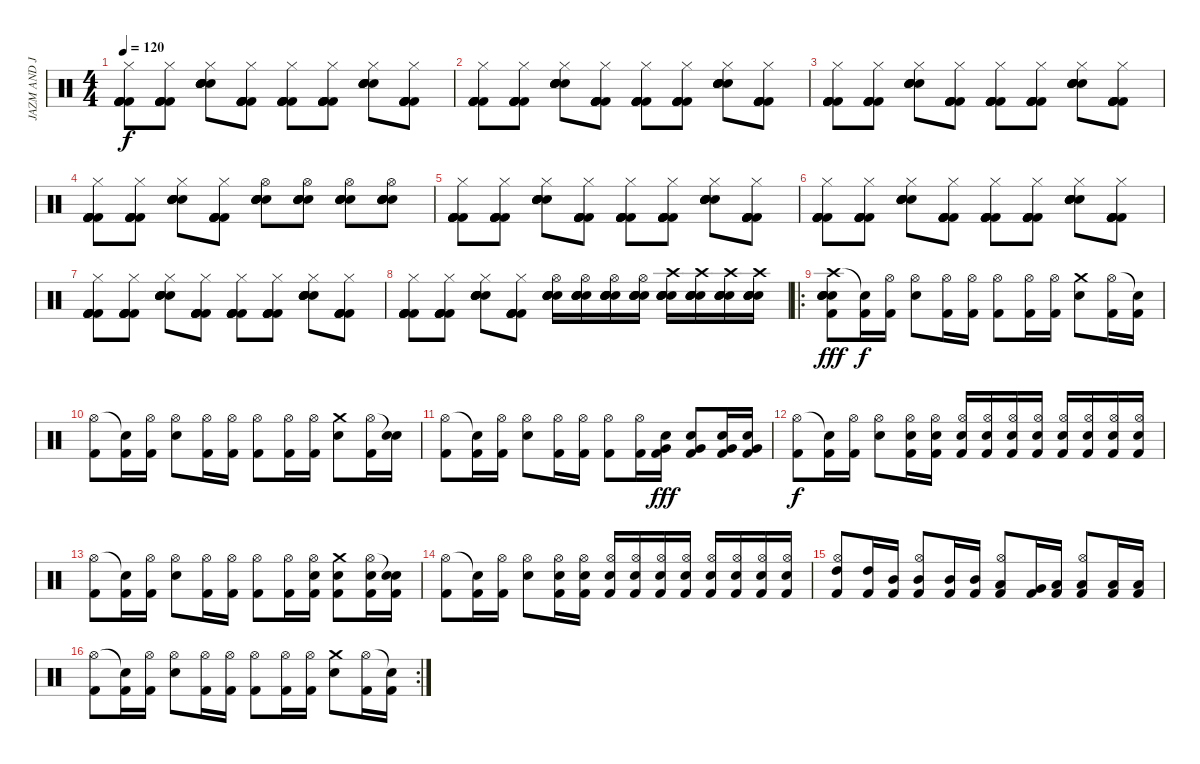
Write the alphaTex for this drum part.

\track ("JAZM AND JOKER" "JAZM AND J") {instrument percussion}
\staff {score}
\articulation defaults
\ts (4 4)
\tempo 120
\clef neutral
\ks c
("Hi-Hat (closed)" "Kick (hit) 2" "Kick (hit) 2" "Kick (hit) 2" "Kick (hit) 2" "Kick (hit) 2").8{dy f} ("Hi-Hat (closed)" "Kick (hit) 2" "Kick (hit) 2" "Kick (hit) 2" "Kick (hit) 2" "Kick (hit) 2").8 ("Hi-Hat (closed)" "Snare (hit) 2" "Snare (hit) 2" "Snare (hit) 2" "Snare (hit) 2" "Snare (hit) 2").8 ("Hi-Hat (closed)" "Kick (hit) 2" "Kick (hit) 2" "Kick (hit) 2" "Kick (hit) 2" "Kick (hit) 2").8 ("Hi-Hat (closed)" "Kick (hit) 2" "Kick (hit) 2" "Kick (hit) 2" "Kick (hit) 2" "Kick (hit) 2").8 ("Hi-Hat (closed)" "Kick (hit) 2" "Kick (hit) 2" "Kick (hit) 2" "Kick (hit) 2" "Kick (hit) 2").8 ("Hi-Hat (closed)" "Snare (hit) 2" "Snare (hit) 2" "Snare (hit) 2" "Snare (hit) 2" "Snare (hit) 2").8 ("Hi-Hat (closed)" "Kick (hit) 2" "Kick (hit) 2" "Kick (hit) 2" "Kick (hit) 2" "Kick (hit) 2").8 |
("Hi-Hat (closed)" "Kick (hit) 2" "Kick (hit) 2" "Kick (hit) 2" "Kick (hit) 2" "Kick (hit) 2").8 ("Hi-Hat (closed)" "Kick (hit) 2" "Kick (hit) 2" "Kick (hit) 2" "Kick (hit) 2" "Kick (hit) 2").8 ("Hi-Hat (closed)" "Snare (hit) 2" "Snare (hit) 2" "Snare (hit) 2" "Snare (hit) 2" "Snare (hit) 2").8 ("Hi-Hat (closed)" "Kick (hit) 2" "Kick (hit) 2" "Kick (hit) 2" "Kick (hit) 2" "Kick (hit) 2").8 ("Hi-Hat (closed)" "Kick (hit) 2" "Kick (hit) 2" "Kick (hit) 2" "Kick (hit) 2" "Kick (hit) 2").8 ("Hi-Hat (closed)" "Kick (hit) 2" "Kick (hit) 2" "Kick (hit) 2" "Kick (hit) 2" "Kick (hit) 2").8 ("Hi-Hat (closed)" "Snare (hit) 2" "Snare (hit) 2" "Snare (hit) 2" "Snare (hit) 2" "Snare (hit) 2").8 ("Hi-Hat (closed)" "Kick (hit) 2" "Kick (hit) 2" "Kick (hit) 2" "Kick (hit) 2" "Kick (hit) 2").8 |
("Hi-Hat (closed)" "Kick (hit) 2" "Kick (hit) 2" "Kick (hit) 2" "Kick (hit) 2" "Kick (hit) 2").8 ("Hi-Hat (closed)" "Kick (hit) 2" "Kick (hit) 2" "Kick (hit) 2" "Kick (hit) 2" "Kick (hit) 2").8 ("Hi-Hat (closed)" "Snare (hit) 2" "Snare (hit) 2" "Snare (hit) 2" "Snare (hit) 2" "Snare (hit) 2").8 ("Hi-Hat (closed)" "Kick (hit) 2" "Kick (hit) 2" "Kick (hit) 2" "Kick (hit) 2" "Kick (hit) 2").8 ("Hi-Hat (closed)" "Kick (hit) 2" "Kick (hit) 2" "Kick (hit) 2" "Kick (hit) 2" "Kick (hit) 2").8 ("Hi-Hat (closed)" "Kick (hit) 2" "Kick (hit) 2" "Kick (hit) 2" "Kick (hit) 2" "Kick (hit) 2").8 ("Hi-Hat (closed)" "Snare (hit) 2" "Snare (hit) 2" "Snare (hit) 2" "Snare (hit) 2" "Snare (hit) 2").8 ("Hi-Hat (closed)" "Kick (hit) 2" "Kick (hit) 2" "Kick (hit) 2" "Kick (hit) 2" "Kick (hit) 2").8 |
("Hi-Hat (closed)" "Kick (hit) 2" "Kick (hit) 2" "Kick (hit) 2" "Kick (hit) 2" "Kick (hit) 2").8 ("Hi-Hat (closed)" "Kick (hit) 2" "Kick (hit) 2" "Kick (hit) 2" "Kick (hit) 2" "Kick (hit) 2").8 ("Hi-Hat (closed)" "Snare (hit) 2" "Snare (hit) 2" "Snare (hit) 2" "Snare (hit) 2" "Snare (hit) 2").8 ("Hi-Hat (closed)" "Kick (hit) 2" "Kick (hit) 2" "Kick (hit) 2" "Kick (hit) 2" "Kick (hit) 2").8 ("Hi-Hat (open)" "Snare (hit) 2" "Snare (hit) 2" "Snare (hit) 2" "Snare (hit) 2" "Snare (hit) 2").8 ("Hi-Hat (open)" "Snare (hit) 2" "Snare (hit) 2" "Snare (hit) 2" "Snare (hit) 2" "Snare (hit) 2").8 ("Hi-Hat (open)" "Snare (hit) 2" "Snare (hit) 2" "Snare (hit) 2" "Snare (hit) 2" "Snare (hit) 2").8 ("Hi-Hat (open)" "Snare (hit) 2" "Snare (hit) 2" "Snare (hit) 2" "Snare (hit) 2" "Snare (hit) 2").8 |
("Hi-Hat (closed)" "Kick (hit) 2" "Kick (hit) 2" "Kick (hit) 2" "Kick (hit) 2" "Kick (hit) 2").8 ("Hi-Hat (closed)" "Kick (hit) 2" "Kick (hit) 2" "Kick (hit) 2" "Kick (hit) 2" "Kick (hit) 2").8 ("Hi-Hat (closed)" "Snare (hit) 2" "Snare (hit) 2" "Snare (hit) 2" "Snare (hit) 2" "Snare (hit) 2").8 ("Hi-Hat (closed)" "Kick (hit) 2" "Kick (hit) 2" "Kick (hit) 2" "Kick (hit) 2" "Kick (hit) 2").8 ("Hi-Hat (closed)" "Kick (hit) 2" "Kick (hit) 2" "Kick (hit) 2" "Kick (hit) 2" "Kick (hit) 2").8 ("Hi-Hat (closed)" "Kick (hit) 2" "Kick (hit) 2" "Kick (hit) 2" "Kick (hit) 2" "Kick (hit) 2").8 ("Hi-Hat (closed)" "Snare (hit) 2" "Snare (hit) 2" "Snare (hit) 2" "Snare (hit) 2" "Snare (hit) 2").8 ("Hi-Hat (closed)" "Kick (hit) 2" "Kick (hit) 2" "Kick (hit) 2" "Kick (hit) 2" "Kick (hit) 2").8 |
("Hi-Hat (closed)" "Kick (hit) 2" "Kick (hit) 2" "Kick (hit) 2" "Kick (hit) 2" "Kick (hit) 2").8 ("Hi-Hat (closed)" "Kick (hit) 2" "Kick (hit) 2" "Kick (hit) 2" "Kick (hit) 2" "Kick (hit) 2").8 ("Hi-Hat (closed)" "Snare (hit) 2" "Snare (hit) 2" "Snare (hit) 2" "Snare (hit) 2" "Snare (hit) 2").8 ("Hi-Hat (closed)" "Kick (hit) 2" "Kick (hit) 2" "Kick (hit) 2" "Kick (hit) 2" "Kick (hit) 2").8 ("Hi-Hat (closed)" "Kick (hit) 2" "Kick (hit) 2" "Kick (hit) 2" "Kick (hit) 2" "Kick (hit) 2").8 ("Hi-Hat (closed)" "Kick (hit) 2" "Kick (hit) 2" "Kick (hit) 2" "Kick (hit) 2" "Kick (hit) 2").8 ("Hi-Hat (closed)" "Snare (hit) 2" "Snare (hit) 2" "Snare (hit) 2" "Snare (hit) 2" "Snare (hit) 2").8 ("Hi-Hat (closed)" "Kick (hit) 2" "Kick (hit) 2" "Kick (hit) 2" "Kick (hit) 2" "Kick (hit) 2").8 |
("Hi-Hat (closed)" "Kick (hit) 2" "Kick (hit) 2" "Kick (hit) 2" "Kick (hit) 2" "Kick (hit) 2").8 ("Hi-Hat (closed)" "Kick (hit) 2" "Kick (hit) 2" "Kick (hit) 2" "Kick (hit) 2" "Kick (hit) 2").8 ("Hi-Hat (closed)" "Snare (hit) 2" "Snare (hit) 2" "Snare (hit) 2" "Snare (hit) 2" "Snare (hit) 2").8 ("Hi-Hat (closed)" "Kick (hit) 2" "Kick (hit) 2" "Kick (hit) 2" "Kick (hit) 2" "Kick (hit) 2").8 ("Hi-Hat (closed)" "Kick (hit) 2" "Kick (hit) 2" "Kick (hit) 2" "Kick (hit) 2" "Kick (hit) 2").8 ("Hi-Hat (closed)" "Kick (hit) 2" "Kick (hit) 2" "Kick (hit) 2" "Kick (hit) 2" "Kick (hit) 2").8 ("Hi-Hat (closed)" "Snare (hit) 2" "Snare (hit) 2" "Snare (hit) 2" "Snare (hit) 2" "Snare (hit) 2").8 ("Hi-Hat (closed)" "Kick (hit) 2" "Kick (hit) 2" "Kick (hit) 2" "Kick (hit) 2" "Kick (hit) 2").8 |
("Hi-Hat (closed)" "Kick (hit) 2" "Kick (hit) 2" "Kick (hit) 2" "Kick (hit) 2" "Kick (hit) 2").8 ("Hi-Hat (closed)" "Kick (hit) 2" "Kick (hit) 2" "Kick (hit) 2" "Kick (hit) 2" "Kick (hit) 2").8 ("Hi-Hat (closed)" "Snare (hit) 2" "Snare (hit) 2" "Snare (hit) 2" "Snare (hit) 2" "Snare (hit) 2").8 ("Hi-Hat (closed)" "Kick (hit) 2" "Kick (hit) 2" "Kick (hit) 2" "Kick (hit) 2" "Kick (hit) 2").8 ("Hi-Hat (open)" "Snare (hit) 2" "Snare (hit) 2" "Snare (hit) 2" "Snare (hit) 2" "Snare (hit) 2").16 ("Hi-Hat (open)" "Snare (hit) 2" "Snare (hit) 2" "Snare (hit) 2" "Snare (hit) 2" "Snare (hit) 2").16 ("Hi-Hat (open)" "Snare (hit) 2" "Snare (hit) 2" "Snare (hit) 2" "Snare (hit) 2" "Snare (hit) 2").16 ("Hi-Hat (open)" "Snare (hit) 2" "Snare (hit) 2" "Snare (hit) 2" "Snare (hit) 2" "Snare (hit) 2").16 ("Crash high (hit)" "Snare (hit) 2" "Snare (hit) 2" "Snare (hit) 2" "Snare (hit) 2" "Snare (hit) 2").16 ("Crash high (hit)" "Snare (hit) 2" "Snare (hit) 2" "Snare (hit) 2" "Snare (hit) 2" "Snare (hit) 2").16 ("Crash high (hit)" "Snare (hit) 2" "Snare (hit) 2" "Snare (hit) 2" "Snare (hit) 2" "Snare (hit) 2").16 ("Crash high (hit)" "Snare (hit) 2" "Snare (hit) 2" "Snare (hit) 2" "Snare (hit) 2" "Snare (hit) 2").16 |
\ro
("Crash high (hit)" "Electric Snare (hit)" "Electric Snare (hit)" "Electric Snare (hit)" "Electric Snare (hit)" "Kick (hit) 2").8{dy fff} ("Snare (hit)"{t} "Kick (hit) 2").16{dy f} ("Hi-Hat (open)" "Kick (hit) 2").16 ("Hi-Hat (open)" "Electric Snare (hit)").8 ("Hi-Hat (open)" "Kick (hit) 2").16 ("Hi-Hat (open)" "Kick (hit) 2").16 ("Hi-Hat (open)" "Kick (hit) 2").8 ("Hi-Hat (open)" "Kick (hit) 2").16 ("Hi-Hat (open)" "Kick (hit) 2").16 ("Crash medium (hit)" "Electric Snare (hit)").8 ("Hi-Hat (open)" "Kick (hit) 2").16 ("Snare (hit)"{t} "Kick (hit) 2").16 |
("Hi-Hat (open)" "Kick (hit) 2").8 ("Snare (hit)"{t} "Kick (hit) 2").16 ("Hi-Hat (open)" "Kick (hit) 2").16 ("Hi-Hat (open)" "Electric Snare (hit)").8 ("Hi-Hat (open)" "Kick (hit) 2").16 ("Hi-Hat (open)" "Kick (hit) 2").16 ("Hi-Hat (open)" "Kick (hit) 2").8 ("Hi-Hat (open)" "Kick (hit) 2").16 ("Hi-Hat (open)" "Kick (hit) 2").16 ("Crash medium (hit)" "Electric Snare (hit)").8 ("Hi-Hat (open)" "Kick (hit) 2").16 ("Snare (hit)"{t} "Electric Snare (hit)").16 |
("Hi-Hat (open)" "Kick (hit) 2").8 ("Snare (hit)"{t} "Kick (hit) 2").16 ("Hi-Hat (open)" "Kick (hit) 2").16 ("Hi-Hat (open)" "Electric Snare (hit)").8 ("Hi-Hat (open)" "Kick (hit) 2").16 ("Hi-Hat (open)" "Kick (hit) 2").16 ("Hi-Hat (open)" "Kick (hit) 2").8 ("Hi-Hat (open)" "Kick (hit) 2").16 ("Very Low Tom (hit)" "Kick (hit) 2" "Electric Snare (hit)").16{dy fff} ("Very Low Tom (hit)" "Kick (hit) 2" "Electric Snare (hit)").8 ("Very Low Tom (hit)" "Kick (hit) 2" "Electric Snare (hit)").16 ("Very Low Tom (hit)" "Kick (hit) 2" "Electric Snare (hit)").16 |
("Hi-Hat (open)" "Kick (hit) 2").8{dy f} ("Snare (hit)"{t} "Kick (hit) 2").16 ("Hi-Hat (open)" "Kick (hit) 2").16 ("Hi-Hat (open)" "Electric Snare (hit)").8 ("Hi-Hat (open)" "Kick (hit) 2" "Electric Snare (hit)").16 ("Hi-Hat (open)" "Kick (hit) 2" "Electric Snare (hit)").16 ("Hi-Hat (open)" "Kick (hit) 2" "Electric Snare (hit)").16 ("Hi-Hat (open)" "Kick (hit) 2" "Electric Snare (hit)").16 ("Hi-Hat (open)" "Kick (hit) 2" "Electric Snare (hit)").16 ("Hi-Hat (open)" "Kick (hit) 2" "Electric Snare (hit)").16 ("Hi-Hat (open)" "Kick (hit) 2" "Electric Snare (hit)").16 ("Hi-Hat (open)" "Kick (hit) 2" "Electric Snare (hit)").16 ("Hi-Hat (open)" "Kick (hit) 2" "Electric Snare (hit)").16 ("Hi-Hat (open)" "Kick (hit) 2" "Electric Snare (hit)").16 |
("Hi-Hat (open)" "Kick (hit) 2").8 ("Snare (hit)"{t} "Kick (hit) 2").16 ("Hi-Hat (open)" "Kick (hit) 2").16 ("Hi-Hat (open)" "Electric Snare (hit)").8 ("Hi-Hat (open)" "Kick (hit) 2").16 ("Hi-Hat (open)" "Kick (hit) 2").16 ("Hi-Hat (open)" "Kick (hit) 2").8 ("Hi-Hat (open)" "Kick (hit) 2").16 ("Hi-Hat (open)" "Kick (hit) 2" "Electric Snare (hit)").16 ("Crash medium (hit)" "Kick (hit) 2" "Electric Snare (hit)").8 ("Hi-Hat (open)" "Kick (hit) 2" "Electric Snare (hit)").16 ("Snare (hit)"{t} "Kick (hit) 2" "Electric Snare (hit)").16 |
("Hi-Hat (open)" "Kick (hit) 2").8 ("Snare (hit)"{t} "Kick (hit) 2").16 ("Hi-Hat (open)" "Kick (hit) 2").16 ("Hi-Hat (open)" "Electric Snare (hit)").8 ("Hi-Hat (open)" "Kick (hit) 2" "Electric Snare (hit)").16 ("Hi-Hat (open)" "Kick (hit) 2" "Electric Snare (hit)").16 ("Hi-Hat (open)" "Kick (hit) 2" "Electric Snare (hit)").16 ("Hi-Hat (open)" "Kick (hit) 2" "Electric Snare (hit)").16 ("Hi-Hat (open)" "Kick (hit) 2" "Electric Snare (hit)").16 ("Hi-Hat (open)" "Kick (hit) 2" "Electric Snare (hit)").16 ("Hi-Hat (open)" "Kick (hit) 2" "Electric Snare (hit)").16 ("Hi-Hat (open)" "Kick (hit) 2" "Electric Snare (hit)").16 ("Hi-Hat (open)" "Kick (hit) 2" "Electric Snare (hit)").16 ("Hi-Hat (open)" "Kick (hit) 2" "Electric Snare (hit)").16 |
("High Tom (hit)" "Hi-Hat (open)" "Kick (hit) 2").8 ("High Tom (hit)" "Kick (hit) 2").16 ("Mid Tom (hit)" "Kick (hit) 2").16 ("Mid Tom (hit)" "Hi-Hat (open)" "Kick (hit) 2").8 ("Mid Tom (hit)" "Kick (hit) 2").16 ("Mid Tom (hit)" "Kick (hit) 2").16 ("Low Tom (hit)" "Hi-Hat (open)" "Kick (hit) 2").8 ("Very Low Tom (hit)" "Kick (hit) 2").16 ("Low Floor Tom (hit)" "Kick (hit) 2").16 ("Low Floor Tom (hit)" "Hi-Hat (open)" "Kick (hit) 2").8 ("Low Floor Tom (hit)" "Kick (hit) 2").16 ("Low Floor Tom (hit)" "Kick (hit) 2").16 |
\rc 2
("Hi-Hat (open)" "Kick (hit) 2").8 ("Snare (hit)"{t} "Kick (hit) 2").16 ("Hi-Hat (open)" "Kick (hit) 2").16 ("Hi-Hat (open)" "Electric Snare (hit)").8 ("Hi-Hat (open)" "Kick (hit) 2").16 ("Hi-Hat (open)" "Kick (hit) 2").16 ("Hi-Hat (open)" "Kick (hit) 2").8 ("Hi-Hat (open)" "Kick (hit) 2").16 ("Hi-Hat (open)" "Kick (hit) 2").16 ("Crash medium (hit)" "Electric Snare (hit)").8 ("Hi-Hat (open)" "Kick (hit) 2").16 ("Snare (hit)"{t} "Kick (hit) 2").16
